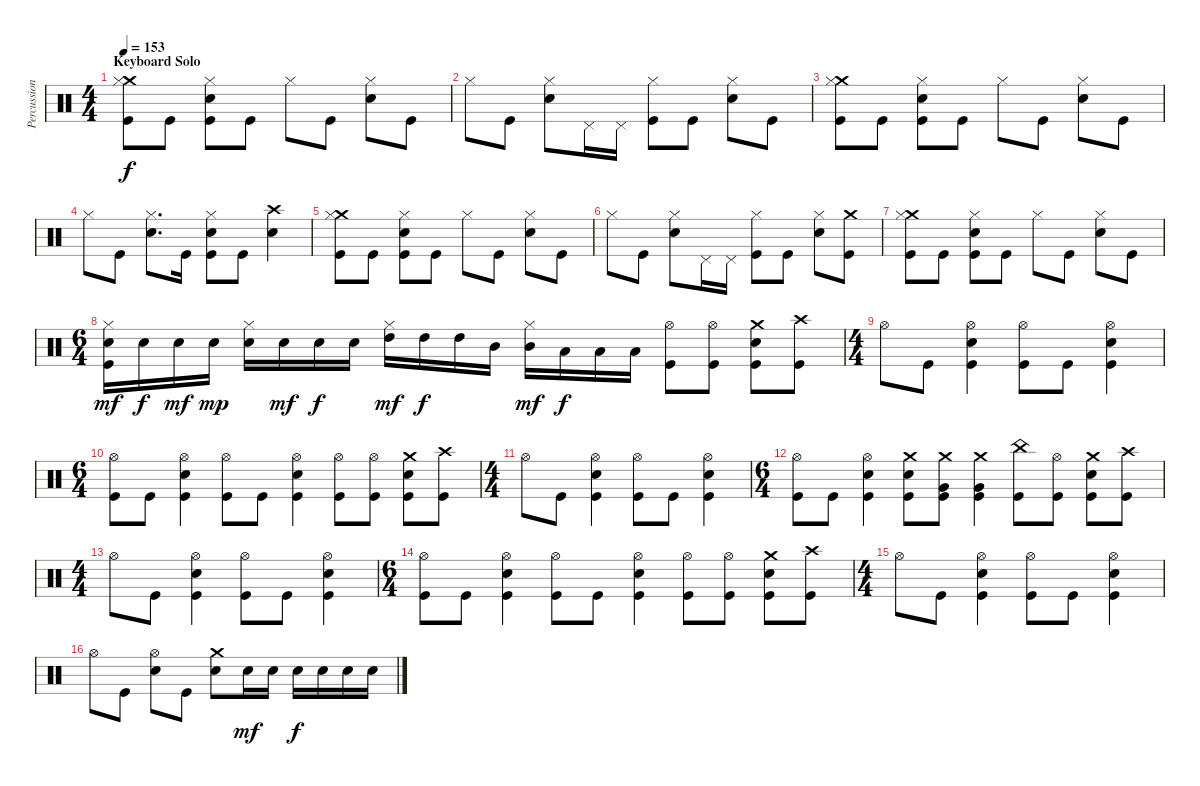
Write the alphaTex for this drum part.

\track ("Percussions" "Percussion") {instrument percussion}
\staff {score}
\articulation defaults
\ts (4 4)
\section ("" "Keyboard Solo")
\tempo 153
\clef neutral
\ks c
("Crash medium (hit)" "Hi-Hat (closed)" "Kick (hit)").8{dy f} "Kick (hit)".8 ("Hi-Hat (closed)" "Electric Snare (hit)" "Kick (hit)").8 "Kick (hit)".8 "Hi-Hat (closed)".8 "Kick (hit)".8 ("Hi-Hat (closed)" "Electric Snare (hit)").8 "Kick (hit)".8 |
"Hi-Hat (closed)".8 "Kick (hit)".8 ("Hi-Hat (closed)" "Electric Snare (hit)").8 "Pedal Hi-Hat (hit)".16 "Pedal Hi-Hat (hit)".16 ("Hi-Hat (closed)" "Kick (hit)").8 "Kick (hit)".8 ("Hi-Hat (closed)" "Electric Snare (hit)").8 "Kick (hit)".8 |
("Crash medium (hit)" "Hi-Hat (closed)" "Kick (hit)").8 "Kick (hit)".8 ("Hi-Hat (closed)" "Electric Snare (hit)" "Kick (hit)").8 "Kick (hit)".8 "Hi-Hat (closed)".8 "Kick (hit)".8 ("Hi-Hat (closed)" "Electric Snare (hit)").8 "Kick (hit)".8 |
"Hi-Hat (closed)".8 "Kick (hit)".8 ("Hi-Hat (closed)" "Electric Snare (hit)").8{d} "Kick (hit)".16 ("Hi-Hat (closed)" "Electric Snare (hit)" "Kick (hit)").8 "Kick (hit)".8 ("Crash high (hit)" "Electric Snare (hit)").4 |
("Crash medium (hit)" "Hi-Hat (closed)" "Kick (hit)").8 "Kick (hit)".8 ("Hi-Hat (closed)" "Electric Snare (hit)" "Kick (hit)").8 "Kick (hit)".8 "Hi-Hat (closed)".8 "Kick (hit)".8 ("Hi-Hat (closed)" "Electric Snare (hit)").8 "Kick (hit)".8 |
"Hi-Hat (closed)".8 "Kick (hit)".8 ("Hi-Hat (closed)" "Electric Snare (hit)").8 "Pedal Hi-Hat (hit)".16 "Pedal Hi-Hat (hit)".16 ("Hi-Hat (closed)" "Kick (hit)").8 "Kick (hit)".8 ("Hi-Hat (closed)" "Electric Snare (hit)").8 ("Crash medium (hit)" "Kick (hit)").8 |
("Crash medium (hit)" "Hi-Hat (closed)" "Kick (hit)").8 "Kick (hit)".8 ("Hi-Hat (closed)" "Electric Snare (hit)" "Kick (hit)").8 "Kick (hit)".8 "Hi-Hat (closed)".8 "Kick (hit)".8 ("Hi-Hat (closed)" "Electric Snare (hit)").8 "Kick (hit)".8 |
\ts (6 4)
("Hi-Hat (closed)" "Electric Snare (hit)" "Kick (hit)").16{dy mf} "Electric Snare (hit)".16{dy f} "Electric Snare (hit)".16{dy mf} "Electric Snare (hit)".16{dy mp} ("Hi-Hat (closed)" "Electric Snare (hit)").16 "Electric Snare (hit)".16{dy mf} "Electric Snare (hit)".16{dy f} "Electric Snare (hit)".16 ("Hi-Hat (closed)" "High Tom (hit)").16{dy mf} "High Tom (hit)".16{dy f} "High Tom (hit)".16 "Mid Tom (hit)".16 ("Hi-Hat (closed)" "Mid Tom (hit)").16{dy mf} "Low Tom (hit)".16{dy f} "Low Tom (hit)".16 "Low Tom (hit)".16 ("Hi-Hat (open)" "Kick (hit)").8 ("Hi-Hat (open)" "Kick (hit)").8 ("Crash medium (hit)" "Electric Snare (hit)" "Kick (hit)").8 ("Crash high (hit)" "Kick (hit)").8 |
\ts (4 4)
"Hi-Hat (open)".8 "Kick (hit)".8 ("Hi-Hat (open)" "Electric Snare (hit)" "Kick (hit)").4 ("Hi-Hat (open)" "Kick (hit)").8 "Kick (hit)".8 ("Hi-Hat (open)" "Electric Snare (hit)" "Kick (hit)").4 |
\ts (6 4)
("Hi-Hat (open)" "Kick (hit)").8 "Kick (hit)".8 ("Hi-Hat (open)" "Electric Snare (hit)" "Kick (hit)").4 ("Hi-Hat (open)" "Kick (hit)").8 "Kick (hit)".8 ("Hi-Hat (open)" "Electric Snare (hit)" "Kick (hit)").4 ("Hi-Hat (open)" "Kick (hit)").8 ("Hi-Hat (open)" "Kick (hit)").8 ("Crash medium (hit)" "Electric Snare (hit)" "Kick (hit)").8 ("Crash high (hit)" "Kick (hit)").8 |
\ts (4 4)
"Hi-Hat (open)".8 "Kick (hit)".8 ("Hi-Hat (open)" "Electric Snare (hit)" "Kick (hit)").4 ("Hi-Hat (open)" "Kick (hit)").8 "Kick (hit)".8 ("Hi-Hat (open)" "Electric Snare (hit)" "Kick (hit)").4 |
\ts (6 4)
("Hi-Hat (open)" "Kick (hit)").8 "Kick (hit)".8 ("Hi-Hat (open)" "Electric Snare (hit)" "Kick (hit)").4 ("Crash medium (hit)" "Electric Snare (hit)" "Kick (hit)").8 ("Crash medium (hit)" "Very Low Tom (hit)" "Kick (hit)").8 ("Crash medium (hit)" "Very Low Tom (hit)" "Kick (hit)").4 ("China (hit)" "Kick (hit)").8 ("Hi-Hat (open)" "Kick (hit)").8 ("Crash medium (hit)" "Electric Snare (hit)" "Kick (hit)").8 ("Crash high (hit)" "Kick (hit)").8 |
\ts (4 4)
"Hi-Hat (open)".8 "Kick (hit)".8 ("Hi-Hat (open)" "Electric Snare (hit)" "Kick (hit)").4 ("Hi-Hat (open)" "Kick (hit)").8 "Kick (hit)".8 ("Hi-Hat (open)" "Electric Snare (hit)" "Kick (hit)").4 |
\ts (6 4)
("Hi-Hat (open)" "Kick (hit)").8 "Kick (hit)".8 ("Hi-Hat (open)" "Electric Snare (hit)" "Kick (hit)").4 ("Hi-Hat (open)" "Kick (hit)").8 "Kick (hit)".8 ("Hi-Hat (open)" "Electric Snare (hit)" "Kick (hit)").4 ("Hi-Hat (open)" "Kick (hit)").8 ("Hi-Hat (open)" "Kick (hit)").8 ("Crash medium (hit)" "Electric Snare (hit)" "Kick (hit)").8 ("Crash high (hit)" "Kick (hit)").8 |
\ts (4 4)
"Hi-Hat (open)".8 "Kick (hit)".8 ("Hi-Hat (open)" "Electric Snare (hit)" "Kick (hit)").4 ("Hi-Hat (open)" "Kick (hit)").8 "Kick (hit)".8 ("Hi-Hat (open)" "Electric Snare (hit)" "Kick (hit)").4 |
"Hi-Hat (open)".8 "Kick (hit)".8 ("Hi-Hat (open)" "Electric Snare (hit)").8 "Kick (hit)".8 ("Crash medium (hit)" "Electric Snare (hit)").8 "Electric Snare (hit)".16{dy mf} "Electric Snare (hit)".16 "Electric Snare (hit)".16{dy f} "Electric Snare (hit)".16 "Electric Snare (hit)".16 "Electric Snare (hit)".16
